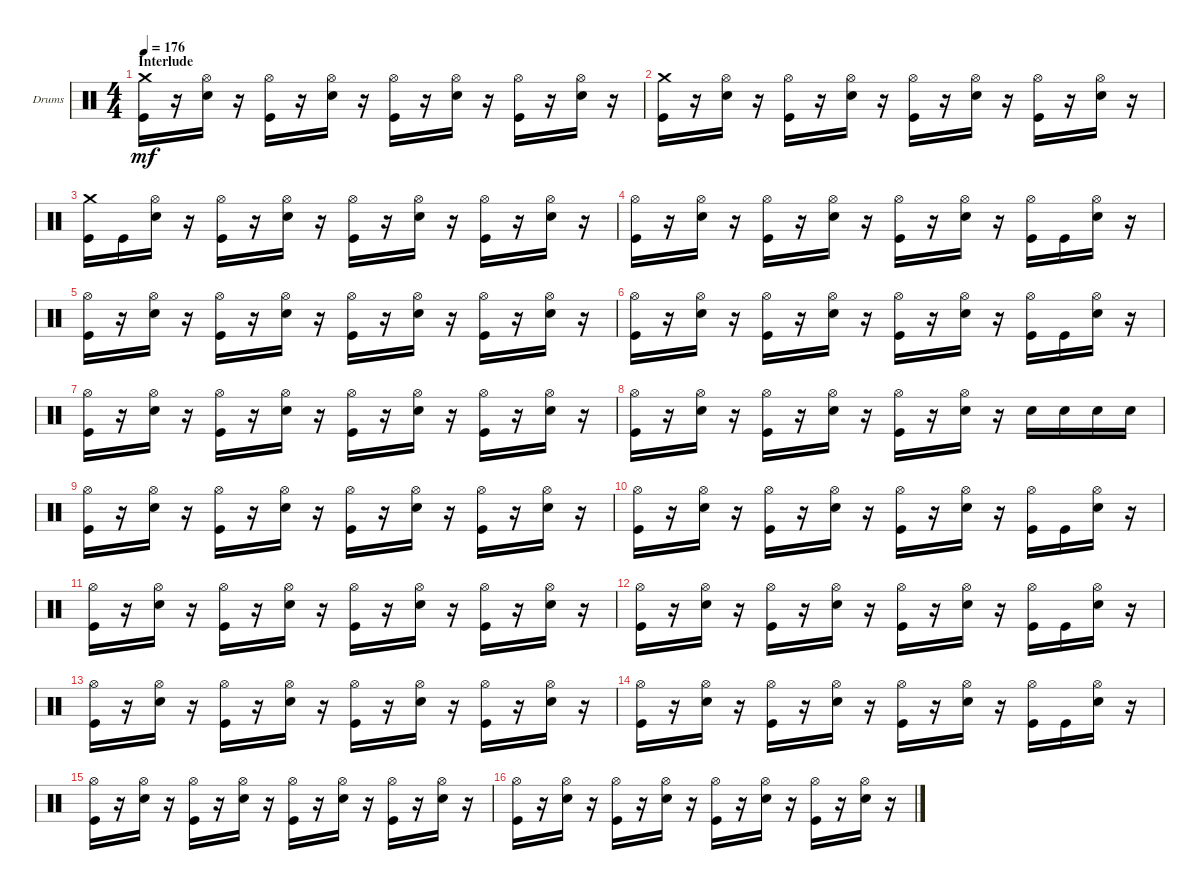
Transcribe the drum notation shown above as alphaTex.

\bracketExtendMode groupsimilarinstruments
\firstSystemTrackNameOrientation horizontal
\otherSystemsTrackNameOrientation horizontal
\track ("Drums" "Drums") {instrument percussion}
\staff {score}
\articulation defaults
\ts (4 4)
\section ("" "Interlude")
\tempo 176
\clef neutral
\ks c
("Kick (hit)" "Crash medium (hit)").16{dy mf} r.16 ("Hi-Hat (open)" "Snare (hit) 2").16 r.16 ("Hi-Hat (open)" "Kick (hit)").16 r.16 ("Hi-Hat (open)" "Snare (hit) 2").16 r.16 ("Hi-Hat (open)" "Kick (hit)").16 r.16 ("Hi-Hat (open)" "Snare (hit) 2").16 r.16 ("Hi-Hat (open)" "Kick (hit)").16 r.16 ("Hi-Hat (open)" "Snare (hit) 2").16 r.16 |
("Crash medium (hit)" "Kick (hit)").16 r.16 ("Hi-Hat (open)" "Snare (hit) 2").16 r.16 ("Hi-Hat (open)" "Kick (hit)").16 r.16 ("Hi-Hat (open)" "Snare (hit) 2").16 r.16 ("Hi-Hat (open)" "Kick (hit)").16 r.16 ("Hi-Hat (open)" "Snare (hit) 2").16 r.16 ("Hi-Hat (open)" "Kick (hit)").16 r.16 ("Hi-Hat (open)" "Snare (hit) 2").16 r.16 |
("Crash medium (hit)" "Kick (hit)").16 "Kick (hit)".16 ("Hi-Hat (open)" "Snare (hit) 2").16 r.16 ("Hi-Hat (open)" "Kick (hit)").16 r.16 ("Hi-Hat (open)" "Snare (hit) 2").16 r.16 ("Hi-Hat (open)" "Kick (hit)").16 r.16 ("Hi-Hat (open)" "Snare (hit) 2").16 r.16 ("Hi-Hat (open)" "Kick (hit)").16 r.16 ("Hi-Hat (open)" "Snare (hit) 2").16 r.16 |
("Kick (hit)" "Hi-Hat (open)").16 r.16 ("Hi-Hat (open)" "Snare (hit) 2").16 r.16 ("Hi-Hat (open)" "Kick (hit)").16 r.16 ("Hi-Hat (open)" "Snare (hit) 2").16 r.16 ("Hi-Hat (open)" "Kick (hit)").16 r.16 ("Hi-Hat (open)" "Snare (hit) 2").16 r.16 ("Hi-Hat (open)" "Kick (hit)").16 "Kick (hit)".16 ("Hi-Hat (open)" "Snare (hit) 2").16 r.16 |
("Kick (hit)" "Hi-Hat (open)").16 r.16 ("Hi-Hat (open)" "Snare (hit) 2").16 r.16 ("Hi-Hat (open)" "Kick (hit)").16 r.16 ("Hi-Hat (open)" "Snare (hit) 2").16 r.16 ("Hi-Hat (open)" "Kick (hit)").16 r.16 ("Hi-Hat (open)" "Snare (hit) 2").16 r.16 ("Hi-Hat (open)" "Kick (hit)").16 r.16 ("Hi-Hat (open)" "Snare (hit) 2").16 r.16 |
("Kick (hit)" "Hi-Hat (open)").16 r.16 ("Hi-Hat (open)" "Snare (hit) 2").16 r.16 ("Hi-Hat (open)" "Kick (hit)").16 r.16 ("Hi-Hat (open)" "Snare (hit) 2").16 r.16 ("Hi-Hat (open)" "Kick (hit)").16 r.16 ("Hi-Hat (open)" "Snare (hit) 2").16 r.16 ("Hi-Hat (open)" "Kick (hit)").16 "Kick (hit)".16 ("Hi-Hat (open)" "Snare (hit) 2").16 r.16 |
("Kick (hit)" "Hi-Hat (open)").16 r.16 ("Hi-Hat (open)" "Snare (hit) 2").16 r.16 ("Hi-Hat (open)" "Kick (hit)").16 r.16 ("Hi-Hat (open)" "Snare (hit) 2").16 r.16 ("Hi-Hat (open)" "Kick (hit)").16 r.16 ("Hi-Hat (open)" "Snare (hit) 2").16 r.16 ("Hi-Hat (open)" "Kick (hit)").16 r.16 ("Hi-Hat (open)" "Snare (hit) 2").16 r.16 |
("Kick (hit)" "Hi-Hat (open)").16 r.16 ("Hi-Hat (open)" "Snare (hit) 2").16 r.16 ("Hi-Hat (open)" "Kick (hit)").16 r.16 ("Hi-Hat (open)" "Snare (hit) 2").16 r.16 ("Hi-Hat (open)" "Kick (hit)").16 r.16 ("Hi-Hat (open)" "Snare (hit) 2").16 r.16 "Snare (hit) 2".16 "Snare (hit) 2".16 "Snare (hit) 2".16 "Snare (hit) 2".16 |
("Kick (hit)" "Hi-Hat (open)").16 r.16 ("Hi-Hat (open)" "Snare (hit) 2").16 r.16 ("Hi-Hat (open)" "Kick (hit)").16 r.16 ("Hi-Hat (open)" "Snare (hit) 2").16 r.16 ("Hi-Hat (open)" "Kick (hit)").16 r.16 ("Hi-Hat (open)" "Snare (hit) 2").16 r.16 ("Hi-Hat (open)" "Kick (hit)").16 r.16 ("Hi-Hat (open)" "Snare (hit) 2").16 r.16 |
("Kick (hit)" "Hi-Hat (open)").16 r.16 ("Hi-Hat (open)" "Snare (hit) 2").16 r.16 ("Hi-Hat (open)" "Kick (hit)").16 r.16 ("Hi-Hat (open)" "Snare (hit) 2").16 r.16 ("Hi-Hat (open)" "Kick (hit)").16 r.16 ("Hi-Hat (open)" "Snare (hit) 2").16 r.16 ("Hi-Hat (open)" "Kick (hit)").16 "Kick (hit)".16 ("Hi-Hat (open)" "Snare (hit) 2").16 r.16 |
("Kick (hit)" "Hi-Hat (open)").16 r.16 ("Hi-Hat (open)" "Snare (hit) 2").16 r.16 ("Hi-Hat (open)" "Kick (hit)").16 r.16 ("Hi-Hat (open)" "Snare (hit) 2").16 r.16 ("Hi-Hat (open)" "Kick (hit)").16 r.16 ("Hi-Hat (open)" "Snare (hit) 2").16 r.16 ("Hi-Hat (open)" "Kick (hit)").16 r.16 ("Hi-Hat (open)" "Snare (hit) 2").16 r.16 |
("Kick (hit)" "Hi-Hat (open)").16 r.16 ("Hi-Hat (open)" "Snare (hit) 2").16 r.16 ("Hi-Hat (open)" "Kick (hit)").16 r.16 ("Hi-Hat (open)" "Snare (hit) 2").16 r.16 ("Hi-Hat (open)" "Kick (hit)").16 r.16 ("Hi-Hat (open)" "Snare (hit) 2").16 r.16 ("Hi-Hat (open)" "Kick (hit)").16 "Kick (hit)".16 ("Hi-Hat (open)" "Snare (hit) 2").16 r.16 |
("Kick (hit)" "Hi-Hat (open)").16 r.16 ("Hi-Hat (open)" "Snare (hit) 2").16 r.16 ("Hi-Hat (open)" "Kick (hit)").16 r.16 ("Hi-Hat (open)" "Snare (hit) 2").16 r.16 ("Hi-Hat (open)" "Kick (hit)").16 r.16 ("Hi-Hat (open)" "Snare (hit) 2").16 r.16 ("Hi-Hat (open)" "Kick (hit)").16 r.16 ("Hi-Hat (open)" "Snare (hit) 2").16 r.16 |
("Kick (hit)" "Hi-Hat (open)").16 r.16 ("Hi-Hat (open)" "Snare (hit) 2").16 r.16 ("Hi-Hat (open)" "Kick (hit)").16 r.16 ("Hi-Hat (open)" "Snare (hit) 2").16 r.16 ("Hi-Hat (open)" "Kick (hit)").16 r.16 ("Hi-Hat (open)" "Snare (hit) 2").16 r.16 ("Hi-Hat (open)" "Kick (hit)").16 "Kick (hit)".16 ("Hi-Hat (open)" "Snare (hit) 2").16 r.16 |
("Kick (hit)" "Hi-Hat (open)").16 r.16 ("Hi-Hat (open)" "Snare (hit) 2").16 r.16 ("Hi-Hat (open)" "Kick (hit)").16 r.16 ("Hi-Hat (open)" "Snare (hit) 2").16 r.16 ("Hi-Hat (open)" "Kick (hit)").16 r.16 ("Hi-Hat (open)" "Snare (hit) 2").16 r.16 ("Hi-Hat (open)" "Kick (hit)").16 r.16 ("Hi-Hat (open)" "Snare (hit) 2").16 r.16 |
("Kick (hit)" "Hi-Hat (open)").16 r.16 ("Hi-Hat (open)" "Snare (hit) 2").16 r.16 ("Hi-Hat (open)" "Kick (hit)").16 r.16 ("Hi-Hat (open)" "Snare (hit) 2").16 r.16 ("Hi-Hat (open)" "Kick (hit)").16 r.16 ("Hi-Hat (open)" "Snare (hit) 2").16 r.16 ("Hi-Hat (open)" "Kick (hit)").16 r.16 ("Hi-Hat (open)" "Snare (hit) 2").16 r.16
